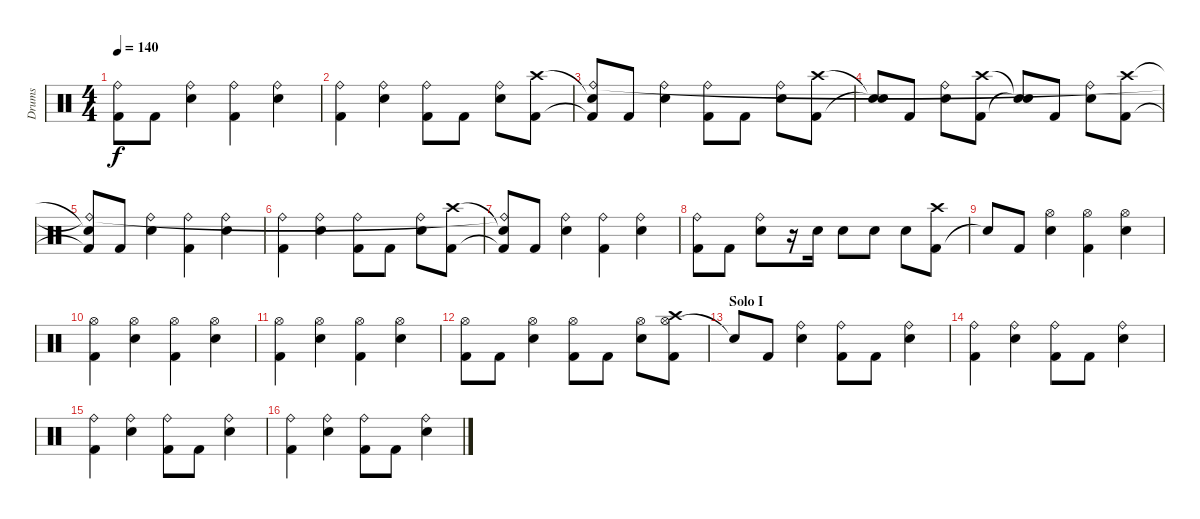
\track ("Drums" "Drums") {instrument percussion}
\staff {score}
\articulation defaults
\ts (4 4)
\tempo 140
\clef neutral
\ks c
("Kick (hit) 2"{t} "Ride (bell)"{t}).8{dy f} "Kick (hit) 2".8 ("Electric Snare (hit)" "Ride (bell)").4 ("Kick (hit) 2" "Ride (bell)").4 ("Electric Snare (hit)" "Ride (bell)").4 |
("Kick (hit) 2" "Ride (bell)").4 ("Electric Snare (hit)" "Ride (bell)").4 ("Kick (hit) 2" "Ride (bell)").8 "Kick (hit) 2".8 ("Electric Snare (hit)" "Ride (bell)").8 ("Kick (hit) 2" "Crash high (hit)").8 |
("Kick (hit) 2"{t} "Snare (hit)"{t} "Ride (bell)").8 "Kick (hit) 2".8 ("Electric Snare (hit)" "Ride (bell)").4 ("Kick (hit) 2" "Ride (bell)").8 "Kick (hit) 2".8 ("Electric Snare (hit)" "Ride (bell)").8 ("Kick (hit) 2" "Crash high (hit)").8 |
("Snare (hit)"{t} "Snare (hit)"{t}).8 "Kick (hit) 2".8 ("Electric Snare (hit)" "Ride (bell)").8 ("Kick (hit) 2" "Crash high (hit)").8 ("Snare (hit)"{t} "Snare (hit)"{t}).8 "Kick (hit) 2".8 ("Electric Snare (hit)" "Ride (bell)").8 ("Kick (hit) 2" "Crash high (hit)").8 |
("Kick (hit) 2"{t} "Snare (hit)"{t} "Ride (bell)"{t}).8 "Kick (hit) 2".8 ("Electric Snare (hit)" "Ride (bell)").4 ("Kick (hit) 2" "Ride (bell)").4 ("Electric Snare (hit)" "Ride (bell)").4 |
("Kick (hit) 2" "Ride (bell)").4 ("Electric Snare (hit)" "Ride (bell)").4 ("Kick (hit) 2" "Ride (bell)").8 "Kick (hit) 2".8 ("Electric Snare (hit)" "Ride (bell)").8 ("Kick (hit) 2" "Crash high (hit)").8 |
("Kick (hit) 2"{t} "Snare (hit)"{t} "Ride (bell)"{t}).8 "Kick (hit) 2".8 ("Electric Snare (hit)" "Ride (bell)").4 ("Kick (hit) 2" "Ride (bell)").4 ("Electric Snare (hit)" "Ride (bell)").4 |
("Kick (hit) 2" "Ride (bell)").8 "Kick (hit) 2".8 ("Electric Snare (hit)" "Ride (bell)").8 r.16 "Electric Snare (hit)".16 "Electric Snare (hit)".8 "Electric Snare (hit)".8 "Electric Snare (hit)".8 ("Kick (hit) 2" "Crash high (hit)").8 |
"Snare (hit)"{t}.8 "Kick (hit) 2".8 ("Hi-Hat (open)" "Electric Snare (hit)").4 ("Hi-Hat (open)" "Kick (hit) 2").4 ("Hi-Hat (open)" "Electric Snare (hit)").4 |
("Hi-Hat (open)" "Kick (hit) 2").4 ("Hi-Hat (open)" "Electric Snare (hit)").4 ("Hi-Hat (open)" "Kick (hit) 2").4 ("Hi-Hat (open)" "Electric Snare (hit)").4 |
("Hi-Hat (open)" "Kick (hit) 2").4 ("Hi-Hat (open)" "Electric Snare (hit)").4 ("Hi-Hat (open)" "Kick (hit) 2").4 ("Hi-Hat (open)" "Electric Snare (hit)").4 |
("Hi-Hat (open)" "Kick (hit) 2").8 "Kick (hit) 2".8 ("Hi-Hat (open)" "Electric Snare (hit)").4 ("Hi-Hat (open)" "Kick (hit) 2").8 "Kick (hit) 2".8 ("Hi-Hat (open)" "Electric Snare (hit)").8 ("Hi-Hat (open)" "Kick (hit) 2" "Crash high (hit)").8 |
\section ("" "Solo I")
"Snare (hit)"{t}.8 "Kick (hit) 2".8 ("Electric Snare (hit)" "Ride (bell)").4 ("Kick (hit) 2" "Ride (bell)").8 "Kick (hit) 2".8 ("Electric Snare (hit)" "Ride (bell)").4 |
("Kick (hit) 2" "Ride (bell)").4 ("Electric Snare (hit)" "Ride (bell)").4 ("Kick (hit) 2" "Ride (bell)").8 "Kick (hit) 2".8 ("Electric Snare (hit)" "Ride (bell)").4 |
("Kick (hit) 2" "Ride (bell)").4 ("Electric Snare (hit)" "Ride (bell)").4 ("Kick (hit) 2" "Ride (bell)").8 "Kick (hit) 2".8 ("Electric Snare (hit)" "Ride (bell)").4 |
("Kick (hit) 2" "Ride (bell)").4 ("Electric Snare (hit)" "Ride (bell)").4 ("Kick (hit) 2" "Ride (bell)").8 "Kick (hit) 2".8 ("Electric Snare (hit)" "Ride (bell)").4
